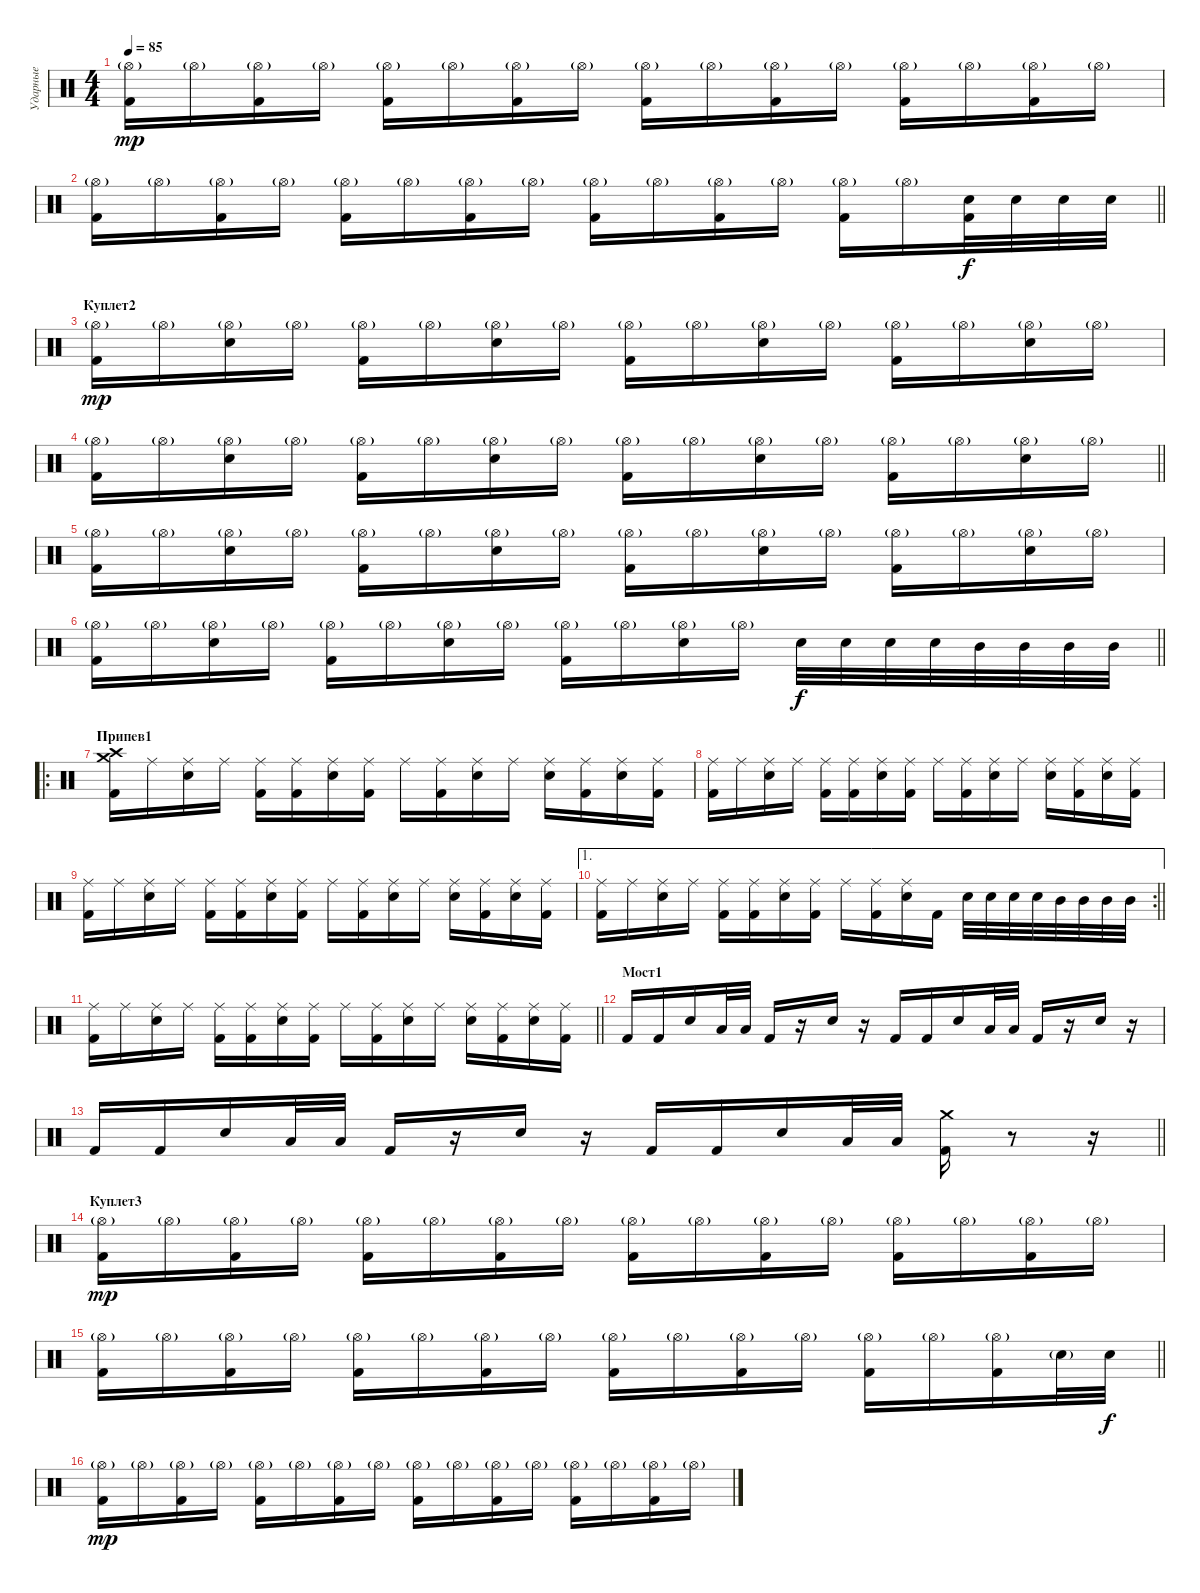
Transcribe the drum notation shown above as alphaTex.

\track ("Ударные" "Ударные") {instrument percussion}
\staff {score}
\articulation defaults
\ts (4 4)
\tempo 85
\clef neutral
\ks c
("Hi-Hat (open)"{g} "Kick (hit) 2").16{dy mp} "Hi-Hat (open)"{g}.16 ("Hi-Hat (open)"{g} "Kick (hit) 2").16 "Hi-Hat (open)"{g}.16 ("Hi-Hat (open)"{g} "Kick (hit) 2").16 "Hi-Hat (open)"{g}.16 ("Hi-Hat (open)"{g} "Kick (hit) 2").16 "Hi-Hat (open)"{g}.16 ("Hi-Hat (open)"{g} "Kick (hit) 2").16 "Hi-Hat (open)"{g}.16 ("Hi-Hat (open)"{g} "Kick (hit) 2").16 "Hi-Hat (open)"{g}.16 ("Hi-Hat (open)"{g} "Kick (hit) 2").16 "Hi-Hat (open)"{g}.16 ("Hi-Hat (open)"{g} "Kick (hit) 2").16 "Hi-Hat (open)"{g}.16 |
\barLineRight lightlight
("Hi-Hat (open)"{g} "Kick (hit) 2").16 "Hi-Hat (open)"{g}.16 ("Hi-Hat (open)"{g} "Kick (hit) 2").16 "Hi-Hat (open)"{g}.16 ("Hi-Hat (open)"{g} "Kick (hit) 2").16 "Hi-Hat (open)"{g}.16 ("Hi-Hat (open)"{g} "Kick (hit) 2").16 "Hi-Hat (open)"{g}.16 ("Hi-Hat (open)"{g} "Kick (hit) 2").16 "Hi-Hat (open)"{g}.16 ("Hi-Hat (open)"{g} "Kick (hit) 2").16 "Hi-Hat (open)"{g}.16 ("Hi-Hat (open)"{g} "Kick (hit) 2").16 "Hi-Hat (open)"{g}.16 ("Electric Snare (hit)" "Kick (hit) 2").32{dy f} "Electric Snare (hit)".32 "Electric Snare (hit)".32 "Electric Snare (hit)".32 |
\section ("" "Куплет2")
("Hi-Hat (open)"{g} "Kick (hit) 2").16{dy mp} "Hi-Hat (open)"{g}.16 ("Hi-Hat (open)"{g} "Electric Snare (hit)").16 "Hi-Hat (open)"{g}.16 ("Hi-Hat (open)"{g} "Kick (hit) 2").16 "Hi-Hat (open)"{g}.16 ("Hi-Hat (open)"{g} "Electric Snare (hit)").16 "Hi-Hat (open)"{g}.16 ("Hi-Hat (open)"{g} "Kick (hit) 2").16 "Hi-Hat (open)"{g}.16 ("Hi-Hat (open)"{g} "Electric Snare (hit)").16 "Hi-Hat (open)"{g}.16 ("Hi-Hat (open)"{g} "Kick (hit) 2").16 "Hi-Hat (open)"{g}.16 ("Hi-Hat (open)"{g} "Electric Snare (hit)").16 "Hi-Hat (open)"{g}.16 |
\barLineRight lightlight
("Hi-Hat (open)"{g} "Kick (hit) 2").16 "Hi-Hat (open)"{g}.16 ("Hi-Hat (open)"{g} "Electric Snare (hit)").16 "Hi-Hat (open)"{g}.16 ("Hi-Hat (open)"{g} "Kick (hit) 2").16 "Hi-Hat (open)"{g}.16 ("Hi-Hat (open)"{g} "Electric Snare (hit)").16 "Hi-Hat (open)"{g}.16 ("Hi-Hat (open)"{g} "Kick (hit) 2").16 "Hi-Hat (open)"{g}.16 ("Hi-Hat (open)"{g} "Electric Snare (hit)").16 "Hi-Hat (open)"{g}.16 ("Hi-Hat (open)"{g} "Kick (hit) 2").16 "Hi-Hat (open)"{g}.16 ("Hi-Hat (open)"{g} "Electric Snare (hit)").16 "Hi-Hat (open)"{g}.16 |
("Hi-Hat (open)"{g} "Kick (hit) 2").16 "Hi-Hat (open)"{g}.16 ("Hi-Hat (open)"{g} "Electric Snare (hit)").16 "Hi-Hat (open)"{g}.16 ("Hi-Hat (open)"{g} "Kick (hit) 2").16 "Hi-Hat (open)"{g}.16 ("Hi-Hat (open)"{g} "Electric Snare (hit)").16 "Hi-Hat (open)"{g}.16 ("Hi-Hat (open)"{g} "Kick (hit) 2").16 "Hi-Hat (open)"{g}.16 ("Hi-Hat (open)"{g} "Electric Snare (hit)").16 "Hi-Hat (open)"{g}.16 ("Hi-Hat (open)"{g} "Kick (hit) 2").16 "Hi-Hat (open)"{g}.16 ("Hi-Hat (open)"{g} "Electric Snare (hit)").16 "Hi-Hat (open)"{g}.16 |
\barLineRight lightlight
("Hi-Hat (open)"{g} "Kick (hit) 2").16 "Hi-Hat (open)"{g}.16 ("Hi-Hat (open)"{g} "Electric Snare (hit)").16 "Hi-Hat (open)"{g}.16 ("Hi-Hat (open)"{g} "Kick (hit) 2").16 "Hi-Hat (open)"{g}.16 ("Hi-Hat (open)"{g} "Electric Snare (hit)").16 "Hi-Hat (open)"{g}.16 ("Hi-Hat (open)"{g} "Kick (hit) 2").16 "Hi-Hat (open)"{g}.16 ("Hi-Hat (open)"{g} "Electric Snare (hit)").16 "Hi-Hat (open)"{g}.16 "Electric Snare (hit)".32{dy f} "Electric Snare (hit)".32 "Electric Snare (hit)".32 "Electric Snare (hit)".32 "Mid Tom (hit)".32 "Mid Tom (hit)".32 "Mid Tom (hit)".32 "Mid Tom (hit)".32 |
\ro
\section ("" "Припев1")
("Crash high (hit)" "Crash medium (hit)" "Kick (hit) 2").16 "Ride (middle)".16 ("Ride (middle)" "Electric Snare (hit)").16 "Ride (middle)".16 ("Ride (middle)" "Kick (hit) 2").16 ("Ride (middle)" "Kick (hit) 2").16 ("Ride (middle)" "Electric Snare (hit)").16 ("Ride (middle)" "Kick (hit) 2").16 "Ride (middle)".16 ("Ride (middle)" "Kick (hit) 2").16 ("Ride (middle)" "Electric Snare (hit)").16 "Ride (middle)".16 ("Ride (middle)" "Electric Snare (hit)").16 ("Ride (middle)" "Kick (hit) 2").16 ("Ride (middle)" "Electric Snare (hit)").16 ("Ride (middle)" "Kick (hit) 2").16 |
("Ride (middle)" "Kick (hit) 2").16 "Ride (middle)".16 ("Ride (middle)" "Electric Snare (hit)").16 "Ride (middle)".16 ("Ride (middle)" "Kick (hit) 2").16 ("Ride (middle)" "Kick (hit) 2").16 ("Ride (middle)" "Electric Snare (hit)").16 ("Ride (middle)" "Kick (hit) 2").16 "Ride (middle)".16 ("Ride (middle)" "Kick (hit) 2").16 ("Ride (middle)" "Electric Snare (hit)").16 "Ride (middle)".16 ("Ride (middle)" "Electric Snare (hit)").16 ("Ride (middle)" "Kick (hit) 2").16 ("Ride (middle)" "Electric Snare (hit)").16 ("Ride (middle)" "Kick (hit) 2").16 |
("Ride (middle)" "Kick (hit) 2").16 "Ride (middle)".16 ("Ride (middle)" "Electric Snare (hit)").16 "Ride (middle)".16 ("Ride (middle)" "Kick (hit) 2").16 ("Ride (middle)" "Kick (hit) 2").16 ("Ride (middle)" "Electric Snare (hit)").16 ("Ride (middle)" "Kick (hit) 2").16 "Ride (middle)".16 ("Ride (middle)" "Kick (hit) 2").16 ("Ride (middle)" "Electric Snare (hit)").16 "Ride (middle)".16 ("Ride (middle)" "Electric Snare (hit)").16 ("Ride (middle)" "Kick (hit) 2").16 ("Ride (middle)" "Electric Snare (hit)").16 ("Ride (middle)" "Kick (hit) 2").16 |
\ae 1
\rc 2
\barLineRight lightlight
("Ride (middle)" "Kick (hit) 2").16 "Ride (middle)".16 ("Ride (middle)" "Electric Snare (hit)").16 "Ride (middle)".16 ("Ride (middle)" "Kick (hit) 2").16 ("Ride (middle)" "Kick (hit) 2").16 ("Ride (middle)" "Electric Snare (hit)").16 ("Ride (middle)" "Kick (hit) 2").16 "Ride (middle)".16 ("Ride (middle)" "Kick (hit) 2").16 ("Ride (middle)" "Electric Snare (hit)").16 "Kick (hit) 2".16 "Electric Snare (hit)".32 "Electric Snare (hit)".32 "Electric Snare (hit)".32 "Electric Snare (hit)".32 "Mid Tom (hit)".32 "Mid Tom (hit)".32 "Mid Tom (hit)".32 "Mid Tom (hit)".32 |
\barLineRight lightlight
("Ride (middle)" "Kick (hit) 2").16 "Ride (middle)".16 ("Ride (middle)" "Electric Snare (hit)").16 "Ride (middle)".16 ("Ride (middle)" "Kick (hit) 2").16 ("Ride (middle)" "Kick (hit) 2").16 ("Ride (middle)" "Electric Snare (hit)").16 ("Ride (middle)" "Kick (hit) 2").16 "Ride (middle)".16 ("Ride (middle)" "Kick (hit) 2").16 ("Ride (middle)" "Electric Snare (hit)").16 "Ride (middle)".16 ("Ride (middle)" "Electric Snare (hit)").16 ("Ride (middle)" "Kick (hit) 2").16 ("Ride (middle)" "Electric Snare (hit)").16 ("Ride (middle)" "Kick (hit) 2").16 |
\section ("" "Мост1")
"Kick (hit) 2".16 "Kick (hit) 2".16 "Electric Snare (hit)".16 "Low Floor Tom (hit)".32 "Low Floor Tom (hit)".32 "Kick (hit) 2".16 r.16 "Electric Snare (hit)".16 r.16 "Kick (hit) 2".16 "Kick (hit) 2".16 "Electric Snare (hit)".16 "Low Floor Tom (hit)".32 "Low Floor Tom (hit)".32 "Kick (hit) 2".16 r.16 "Electric Snare (hit)".16 r.16 |
\barLineRight lightlight "Kick (hit) 2".16 "Kick (hit) 2".16 "Electric Snare (hit)".16 "Low Floor Tom (hit)".32 "Low Floor Tom (hit)".32 "Kick (hit) 2".16
r.16 "Electric Snare (hit)".16 r.16 "Kick (hit) 2".16 "Kick (hit) 2".16 "Electric Snare (hit)".16 "Low Floor Tom (hit)".32 "Low Floor Tom (hit)".32 ("Crash medium (hit)" "Kick (hit) 2").16 r.8 r.16 |
\section ("" "Куплет3")
("Hi-Hat (open)"{g} "Kick (hit) 2").16{dy mp} "Hi-Hat (open)"{g}.16 ("Hi-Hat (open)"{g} "Kick (hit) 2").16 "Hi-Hat (open)"{g}.16 ("Hi-Hat (open)"{g} "Kick (hit) 2").16 "Hi-Hat (open)"{g}.16 ("Hi-Hat (open)"{g} "Kick (hit) 2").16 "Hi-Hat (open)"{g}.16 ("Hi-Hat (open)"{g} "Kick (hit) 2").16 "Hi-Hat (open)"{g}.16 ("Hi-Hat (open)"{g} "Kick (hit) 2").16 "Hi-Hat (open)"{g}.16 ("Hi-Hat (open)"{g} "Kick (hit) 2").16 "Hi-Hat (open)"{g}.16 ("Hi-Hat (open)"{g} "Kick (hit) 2").16 "Hi-Hat (open)"{g}.16 |
\barLineRight lightlight
("Hi-Hat (open)"{g} "Kick (hit) 2").16 "Hi-Hat (open)"{g}.16 ("Hi-Hat (open)"{g} "Kick (hit) 2").16 "Hi-Hat (open)"{g}.16 ("Hi-Hat (open)"{g} "Kick (hit) 2").16 "Hi-Hat (open)"{g}.16 ("Hi-Hat (open)"{g} "Kick (hit) 2").16 "Hi-Hat (open)"{g}.16 ("Hi-Hat (open)"{g} "Kick (hit) 2").16 "Hi-Hat (open)"{g}.16 ("Hi-Hat (open)"{g} "Kick (hit) 2").16 "Hi-Hat (open)"{g}.16 ("Hi-Hat (open)"{g} "Kick (hit) 2").16 "Hi-Hat (open)"{g}.16 ("Hi-Hat (open)"{g} "Kick (hit) 2").16 "Electric Snare (hit)"{g}.32 "Electric Snare (hit)".32{dy f} |
("Hi-Hat (open)"{g} "Kick (hit) 2").16{dy mp} "Hi-Hat (open)"{g}.16 ("Hi-Hat (open)"{g} "Kick (hit) 2").16 "Hi-Hat (open)"{g}.16 ("Hi-Hat (open)"{g} "Kick (hit) 2").16 "Hi-Hat (open)"{g}.16 ("Hi-Hat (open)"{g} "Kick (hit) 2").16 "Hi-Hat (open)"{g}.16 ("Hi-Hat (open)"{g} "Kick (hit) 2").16 "Hi-Hat (open)"{g}.16 ("Hi-Hat (open)"{g} "Kick (hit) 2").16 "Hi-Hat (open)"{g}.16 ("Hi-Hat (open)"{g} "Kick (hit) 2").16 "Hi-Hat (open)"{g}.16 ("Hi-Hat (open)"{g} "Kick (hit) 2").16 "Hi-Hat (open)"{g}.16
